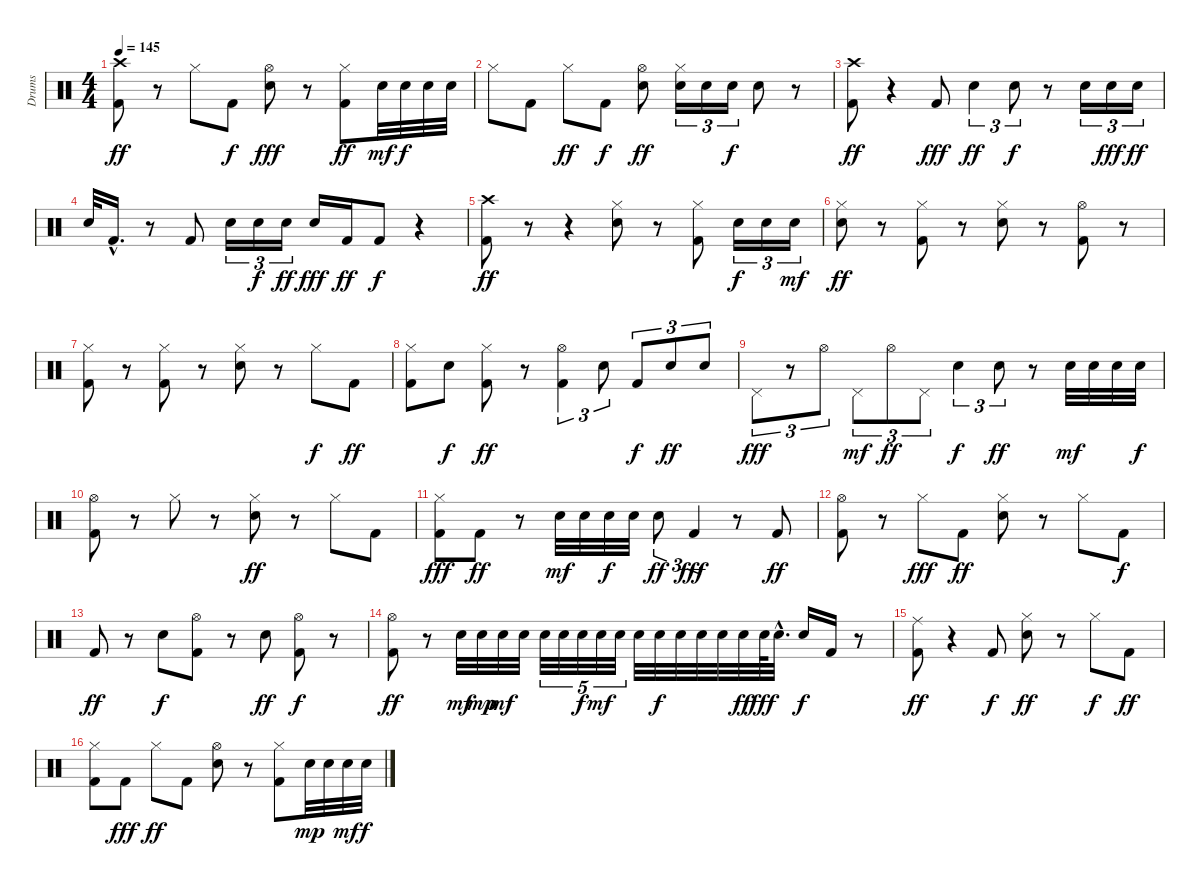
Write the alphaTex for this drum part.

\track ("Drums" "Drums") {instrument percussion}
\staff {score}
\articulation defaults
\ts (4 4)
\tempo 145
\clef neutral
\ks c
("Crash high (hit)" "Kick (hit) 2").8{dy ff} r.8 "Hi-Hat (closed)".8 "Kick (hit) 2".8{dy f} ("Hi-Hat (open)" "Snare (hit) 2").8{dy fff} r.8 ("Hi-Hat (closed)" "Kick (hit) 2").8{dy ff} "Snare (hit) 2".32{dy mf} "Snare (hit) 2".32{dy f} "Snare (hit) 2".32 "Snare (hit) 2".32 |
"Hi-Hat (closed)".8 "Kick (hit) 2".8 "Hi-Hat (closed)".8{dy ff} "Kick (hit) 2".8{dy f} ("Hi-Hat (open)" "Snare (hit) 2").8{dy ff} ("Hi-Hat (closed)" "Snare (hit) 2").16{tu (3 2)} "Snare (hit) 2".16{tu (3 2)} "Snare (hit) 2".16{tu (3 2) dy f} "Snare (hit) 2".8 r.8 |
("Crash high (hit)" "Kick (hit) 2").8{dy ff} r.4 "Kick (hit) 2".8{dy fff} "Snare (hit) 2".4{tu (3 2) dy ff} "Snare (hit) 2".8{tu (3 2) dy f} r.8 "Snare (hit) 2".16{tu (3 2)} "Snare (hit) 2".16{tu (3 2) dy fff} "Snare (hit) 2".16{tu (3 2) dy ff} |
"Snare (hit) 2".32 "Kick (hit) 2"{hac}.16{d} r.8 "Kick (hit) 2".8 "Snare (hit) 2".16{tu (3 2)} "Snare (hit) 2".16{tu (3 2) dy f} "Snare (hit) 2".16{tu (3 2) dy ff} "Snare (hit) 2".16{dy fff} "Kick (hit) 2".16{dy ff} "Kick (hit) 2".8{dy f} r.4 |
("Crash high (hit)" "Kick (hit) 2").8{dy ff} r.8 r.4 ("Hi-Hat (closed)" "Snare (hit) 2").8 r.8 ("Hi-Hat (closed)" "Kick (hit) 2").8 "Snare (hit) 2".16{tu (3 2) dy f} "Snare (hit) 2".16{tu (3 2)} "Snare (hit) 2".16{tu (3 2) dy mf} |
("Hi-Hat (closed)" "Snare (hit) 2").8{dy ff} r.8 ("Hi-Hat (closed)" "Kick (hit) 2").8 r.8 ("Hi-Hat (closed)" "Snare (hit) 2").8 r.8 ("Hi-Hat (open)" "Kick (hit) 2").8 r.8 |
("Hi-Hat (closed)" "Kick (hit) 2").8 r.8 ("Hi-Hat (closed)" "Kick (hit) 2").8 r.8 ("Hi-Hat (closed)" "Snare (hit) 2").8 r.8 "Hi-Hat (closed)".8{dy f} "Kick (hit) 2".8{dy ff} |
("Hi-Hat (closed)" "Kick (hit) 2").8 "Snare (hit) 2".8{dy f} ("Hi-Hat (closed)" "Kick (hit) 2").8{dy ff} r.8 ("Hi-Hat (open)" "Kick (hit) 2").4{tu (3 2)} "Snare (hit) 2".8{tu (3 2)} "Kick (hit) 2".8{tu (3 2) dy f} "Snare (hit) 2".8{tu (3 2) dy ff} "Snare (hit) 2".8{tu (3 2)} |
"Pedal Hi-Hat (hit)".8{tu (3 2) dy fff} r.8{tu (3 2)} "Hi-Hat (open)".8{tu (3 2)} "Pedal Hi-Hat (hit)".8{tu (3 2) dy mf} "Hi-Hat (open)".8{tu (3 2) dy ff} "Pedal Hi-Hat (hit)".8{tu (3 2)} "Snare (hit) 2".4{tu (3 2) dy f} "Snare (hit) 2".8{tu (3 2) dy ff} r.8 "Snare (hit) 2".32{dy mf} "Snare (hit) 2".32 "Snare (hit) 2".32 "Snare (hit) 2".32{dy f} |
("Hi-Hat (open)" "Kick (hit) 2").8 r.8 "Hi-Hat (closed)".8 r.8 ("Hi-Hat (closed)" "Snare (hit) 2").8{dy ff} r.8 "Hi-Hat (closed)".8 "Kick (hit) 2".8 |
("Hi-Hat (closed)" "Kick (hit) 2").8{dy fff} "Kick (hit) 2".8{dy ff} r.8 "Snare (hit) 2".32{dy mf} "Snare (hit) 2".32 "Snare (hit) 2".32{dy f} "Snare (hit) 2".32 "Snare (hit) 2".8{tu (3 2) dy ff} "Kick (hit) 2".4{tu (3 2) dy fff} r.8 "Kick (hit) 2".8{dy ff} |
("Hi-Hat (open)" "Kick (hit) 2").8 r.8 "Hi-Hat (closed)".8{dy fff} "Kick (hit) 2".8{dy ff} ("Hi-Hat (closed)" "Snare (hit) 2").8 r.8 "Hi-Hat (closed)".8 "Kick (hit) 2".8{dy f} |
"Kick (hit) 2".8{dy ff} r.8 "Snare (hit) 2".8{dy f} ("Hi-Hat (open)" "Kick (hit) 2").8 r.8 "Snare (hit) 2".8{dy ff} ("Hi-Hat (open)" "Kick (hit) 2").8{dy f} r.8 |
("Hi-Hat (open)" "Kick (hit) 2").8{dy ff} r.8 "Snare (hit) 2".32{dy mf} "Snare (hit) 2".32{dy mp} "Snare (hit) 2".32{dy mf} "Snare (hit) 2".32 "Snare (hit) 2".32{tu (5 4)} "Snare (hit) 2".32{tu (5 4)} "Snare (hit) 2".32{tu (5 4) dy f} "Snare (hit) 2".32{tu (5 4) dy mf} "Snare (hit) 2".32{tu (5 4)} "Snare (hit) 2".32 "Snare (hit) 2".32{dy f} "Snare (hit) 2".32 "Snare (hit) 2".32 "Snare (hit) 2".32 "Snare (hit) 2".32{dy ff} "Snare (hit) 2".64{dy fff} "Snare (hit) 2"{hac}.32{d} "Snare (hit) 2".16{dy f} "Kick (hit) 2".16 r.8 |
("Ride (middle)" "Kick (hit) 2").8{dy ff} r.4 "Kick (hit) 2".8{dy f} ("Hi-Hat (closed)" "Snare (hit) 2").8{dy ff} r.8 "Hi-Hat (closed)".8{dy f} "Kick (hit) 2".8{dy ff} |
("Hi-Hat (closed)" "Kick (hit) 2").8 "Kick (hit) 2".8{dy fff} "Hi-Hat (closed)".8{dy ff} "Kick (hit) 2".8 ("Hi-Hat (open)" "Snare (hit) 2").8 r.8 ("Hi-Hat (closed)" "Kick (hit) 2").8 "Snare (hit) 2".32{dy mp} "Snare (hit) 2".32 "Snare (hit) 2".32{dy mf} "Snare (hit) 2".32{dy f}
